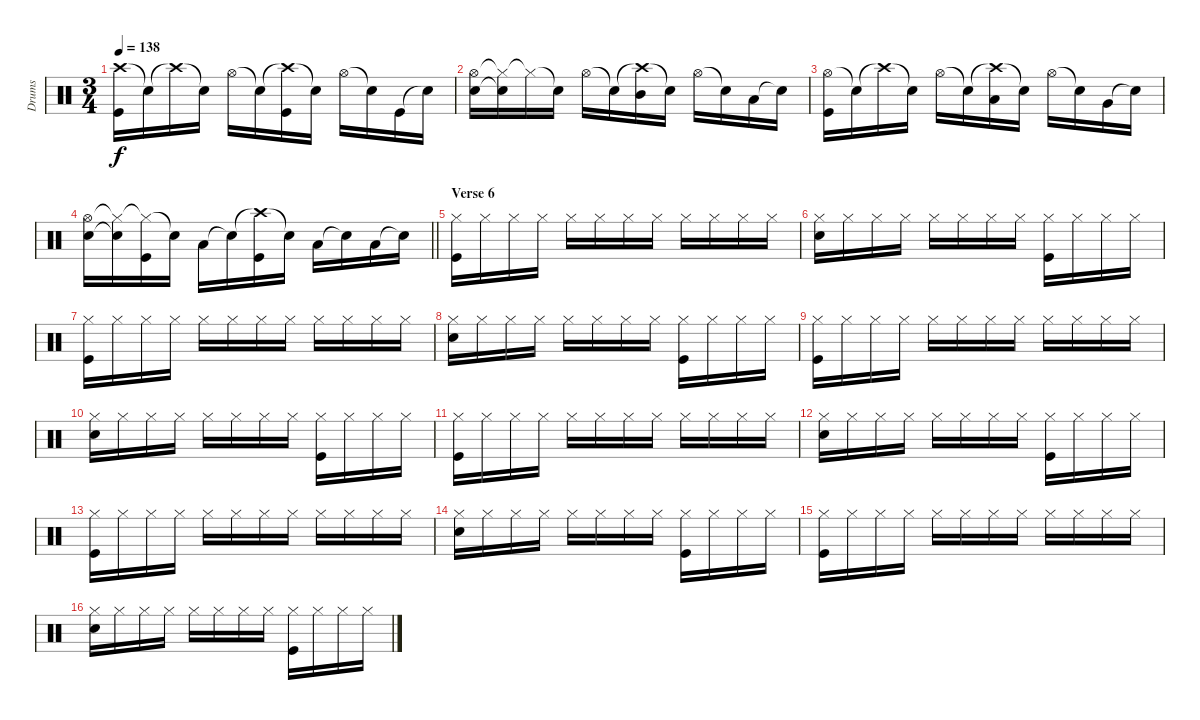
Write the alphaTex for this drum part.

\track ("Drums" "Drums") {instrument percussion}
\staff {score}
\articulation defaults
\ts (3 4)
\tempo 138
\clef neutral
\ks c
("Crash high (hit)" "Kick (hit)").16{dy f} "Snare (hit)"{t}.16 "Crash high (hit)"{t}.16 "Snare (hit)"{t}.16 "Hi-Hat (open)".16 "Snare (hit)"{t}.16 ("Crash high (hit)"{t} "Kick (hit)").16 "Snare (hit)"{t}.16 "Hi-Hat (open)".16 "Snare (hit)"{t}.16 "Kick (hit)".16 "Snare (hit)"{t}.16 |
("Hi-Hat (open)" "Electric Snare (hit)").16 ("Hi-Hat (closed)"{t} "Snare (hit)"{t}).16 "Hi-Hat (closed)"{t}.16 "Snare (hit)"{t}.16 "Hi-Hat (open)".16 "Snare (hit)"{t}.16 ("Crash high (hit)"{t} "Mid Tom (hit)").16 "Snare (hit)"{t}.16 "Hi-Hat (open)".16 "Snare (hit)"{t}.16 "Low Tom (hit)".16 "Snare (hit)"{t}.16 |
("Hi-Hat (open)" "Kick (hit)").16 "Snare (hit)"{t}.16 "Crash high (hit)"{t}.16 "Snare (hit)"{t}.16 "Hi-Hat (open)".16 "Snare (hit)"{t}.16 ("Crash high (hit)"{t} "Low Tom (hit)").16 "Snare (hit)"{t}.16 "Hi-Hat (open)".16 "Snare (hit)"{t}.16 "Very Low Tom (hit)".16 "Snare (hit)"{t}.16 |
\barLineRight lightlight
("Hi-Hat (open)" "Electric Snare (hit)").16 ("Hi-Hat (closed)"{t} "Snare (hit)"{t}).16 ("Hi-Hat (closed)"{t} "Kick (hit)").16 "Snare (hit)"{t}.16 "Low Tom (hit)".16 "Snare (hit)"{t}.16 ("Crash high (hit)"{t} "Kick (hit)").16 "Snare (hit)"{t}.16 "Low Floor Tom (hit)".16 "Snare (hit)"{t}.16 "Low Floor Tom (hit)".16 "Snare (hit)"{t}.16 |
\section ("" "Verse 6")
("Hi-Hat (closed)" "Kick (hit)").16 "Hi-Hat (closed)".16 "Hi-Hat (closed)".16 "Hi-Hat (closed)".16 "Hi-Hat (closed)".16 "Hi-Hat (closed)".16 "Hi-Hat (closed)".16 "Hi-Hat (closed)".16 "Hi-Hat (closed)".16 "Hi-Hat (closed)".16 "Hi-Hat (closed)".16 "Hi-Hat (closed)".16 |
("Hi-Hat (closed)" "Electric Snare (hit)").16 "Hi-Hat (closed)".16 "Hi-Hat (closed)".16 "Hi-Hat (closed)".16 "Hi-Hat (closed)".16 "Hi-Hat (closed)".16 "Hi-Hat (closed)".16 "Hi-Hat (closed)".16 ("Hi-Hat (closed)" "Kick (hit)").16 "Hi-Hat (closed)".16 "Hi-Hat (closed)".16 "Hi-Hat (closed)".16 |
("Hi-Hat (closed)" "Kick (hit)").16 "Hi-Hat (closed)".16 "Hi-Hat (closed)".16 "Hi-Hat (closed)".16 "Hi-Hat (closed)".16 "Hi-Hat (closed)".16 "Hi-Hat (closed)".16 "Hi-Hat (closed)".16 "Hi-Hat (closed)".16 "Hi-Hat (closed)".16 "Hi-Hat (closed)".16 "Hi-Hat (closed)".16 |
("Hi-Hat (closed)" "Electric Snare (hit)").16 "Hi-Hat (closed)".16 "Hi-Hat (closed)".16 "Hi-Hat (closed)".16 "Hi-Hat (closed)".16 "Hi-Hat (closed)".16 "Hi-Hat (closed)".16 "Hi-Hat (closed)".16 ("Hi-Hat (closed)" "Kick (hit)").16 "Hi-Hat (closed)".16 "Hi-Hat (closed)".16 "Hi-Hat (closed)".16 |
("Hi-Hat (closed)" "Kick (hit)").16 "Hi-Hat (closed)".16 "Hi-Hat (closed)".16 "Hi-Hat (closed)".16 "Hi-Hat (closed)".16 "Hi-Hat (closed)".16 "Hi-Hat (closed)".16 "Hi-Hat (closed)".16 "Hi-Hat (closed)".16 "Hi-Hat (closed)".16 "Hi-Hat (closed)".16 "Hi-Hat (closed)".16 |
("Hi-Hat (closed)" "Electric Snare (hit)").16 "Hi-Hat (closed)".16 "Hi-Hat (closed)".16 "Hi-Hat (closed)".16 "Hi-Hat (closed)".16 "Hi-Hat (closed)".16 "Hi-Hat (closed)".16 "Hi-Hat (closed)".16 ("Hi-Hat (closed)" "Kick (hit)").16 "Hi-Hat (closed)".16 "Hi-Hat (closed)".16 "Hi-Hat (closed)".16 |
("Hi-Hat (closed)" "Kick (hit)").16 "Hi-Hat (closed)".16 "Hi-Hat (closed)".16 "Hi-Hat (closed)".16 "Hi-Hat (closed)".16 "Hi-Hat (closed)".16 "Hi-Hat (closed)".16 "Hi-Hat (closed)".16 "Hi-Hat (closed)".16 "Hi-Hat (closed)".16 "Hi-Hat (closed)".16 "Hi-Hat (closed)".16 |
("Hi-Hat (closed)" "Electric Snare (hit)").16 "Hi-Hat (closed)".16 "Hi-Hat (closed)".16 "Hi-Hat (closed)".16 "Hi-Hat (closed)".16 "Hi-Hat (closed)".16 "Hi-Hat (closed)".16 "Hi-Hat (closed)".16 ("Hi-Hat (closed)" "Kick (hit)").16 "Hi-Hat (closed)".16 "Hi-Hat (closed)".16 "Hi-Hat (closed)".16 |
("Hi-Hat (closed)" "Kick (hit)").16 "Hi-Hat (closed)".16 "Hi-Hat (closed)".16 "Hi-Hat (closed)".16 "Hi-Hat (closed)".16 "Hi-Hat (closed)".16 "Hi-Hat (closed)".16 "Hi-Hat (closed)".16 "Hi-Hat (closed)".16 "Hi-Hat (closed)".16 "Hi-Hat (closed)".16 "Hi-Hat (closed)".16 |
("Hi-Hat (closed)" "Electric Snare (hit)").16 "Hi-Hat (closed)".16 "Hi-Hat (closed)".16 "Hi-Hat (closed)".16 "Hi-Hat (closed)".16 "Hi-Hat (closed)".16 "Hi-Hat (closed)".16 "Hi-Hat (closed)".16 ("Hi-Hat (closed)" "Kick (hit)").16 "Hi-Hat (closed)".16 "Hi-Hat (closed)".16 "Hi-Hat (closed)".16 |
("Hi-Hat (closed)" "Kick (hit)").16 "Hi-Hat (closed)".16 "Hi-Hat (closed)".16 "Hi-Hat (closed)".16 "Hi-Hat (closed)".16 "Hi-Hat (closed)".16 "Hi-Hat (closed)".16 "Hi-Hat (closed)".16 "Hi-Hat (closed)".16 "Hi-Hat (closed)".16 "Hi-Hat (closed)".16 "Hi-Hat (closed)".16 |
("Hi-Hat (closed)" "Electric Snare (hit)").16 "Hi-Hat (closed)".16 "Hi-Hat (closed)".16 "Hi-Hat (closed)".16 "Hi-Hat (closed)".16 "Hi-Hat (closed)".16 "Hi-Hat (closed)".16 "Hi-Hat (closed)".16 ("Hi-Hat (closed)" "Kick (hit)").16 "Hi-Hat (closed)".16 "Hi-Hat (closed)".16 "Hi-Hat (closed)".16
